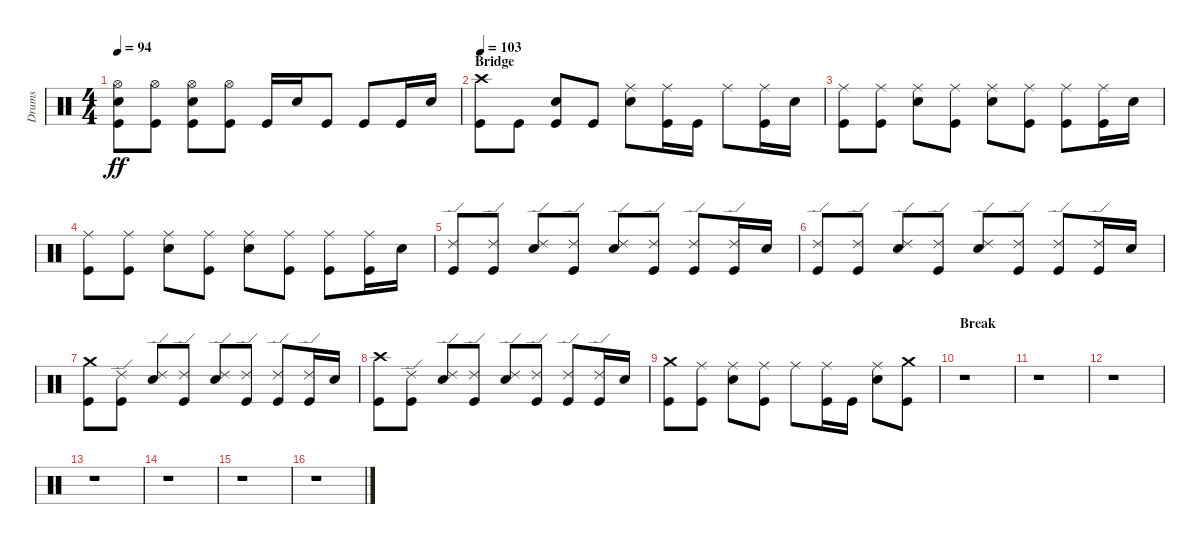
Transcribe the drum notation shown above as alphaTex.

\track ("Drums" "Drums") {instrument percussion}
\staff {score}
\articulation defaults
\ts (4 4)
\tempo 94
\clef neutral
\ks c
("Hi-Hat (open)" "Electric Snare (hit)" "Kick (hit)").8{dy ff} ("Hi-Hat (open)" "Kick (hit)").8 ("Hi-Hat (open)" "Electric Snare (hit)" "Kick (hit)").8 ("Hi-Hat (open)" "Kick (hit)").8 "Kick (hit)".16 "Electric Snare (hit)".16 "Kick (hit)".8 "Kick (hit)".8 "Kick (hit)".16 "Electric Snare (hit)".16 |
\section ("" "Bridge")
\tempo 103
("Crash high (hit)" "Kick (hit)").8 "Kick (hit)".8 ("Electric Snare (hit)" "Kick (hit)").8 "Kick (hit)".8 ("Ride (middle)" "Electric Snare (hit)").8 ("Ride (middle)" "Kick (hit)").16 "Kick (hit)".16 "Ride (middle)".8 ("Ride (middle)" "Kick (hit)").16 "Electric Snare (hit)".16 |
("Ride (middle)" "Kick (hit)").8 ("Ride (middle)" "Kick (hit)").8 ("Ride (middle)" "Electric Snare (hit)").8 ("Ride (middle)" "Kick (hit)").8 ("Ride (middle)" "Electric Snare (hit)").8 ("Ride (middle)" "Kick (hit)").8 ("Ride (middle)" "Kick (hit)").8 ("Ride (middle)" "Kick (hit)").16 "Electric Snare (hit)".16 |
("Ride (middle)" "Kick (hit)").8 ("Ride (middle)" "Kick (hit)").8 ("Ride (middle)" "Electric Snare (hit)").8 ("Ride (middle)" "Kick (hit)").8 ("Ride (middle)" "Electric Snare (hit)").8 ("Ride (middle)" "Kick (hit)").8 ("Ride (middle)" "Kick (hit)").8 ("Ride (middle)" "Kick (hit)").16 "Electric Snare (hit)".16 |
("Ride (edge) 2" "Kick (hit)").8 ("Ride (edge) 2" "Kick (hit)").8 ("Ride (edge) 2" "Electric Snare (hit)").8 ("Ride (edge) 2" "Kick (hit)").8 ("Ride (edge) 2" "Electric Snare (hit)").8 ("Ride (edge) 2" "Kick (hit)").8 ("Ride (edge) 2" "Kick (hit)").8 ("Ride (edge) 2" "Kick (hit)").16 "Electric Snare (hit)".16 |
("Ride (edge) 2" "Kick (hit)").8 ("Ride (edge) 2" "Kick (hit)").8 ("Ride (edge) 2" "Electric Snare (hit)").8 ("Ride (edge) 2" "Kick (hit)").8 ("Ride (edge) 2" "Electric Snare (hit)").8 ("Ride (edge) 2" "Kick (hit)").8 ("Ride (edge) 2" "Kick (hit)").8 ("Ride (edge) 2" "Kick (hit)").16 "Electric Snare (hit)".16 |
("Crash medium (hit)" "Kick (hit)").8 ("Ride (edge) 2" "Kick (hit)").8 ("Ride (edge) 2" "Electric Snare (hit)").8 ("Ride (edge) 2" "Kick (hit)").8 ("Ride (edge) 2" "Electric Snare (hit)").8 ("Ride (edge) 2" "Kick (hit)").8 ("Ride (edge) 2" "Kick (hit)").8 ("Ride (edge) 2" "Kick (hit)").16 "Electric Snare (hit)".16 |
("Crash high (hit)" "Kick (hit)").8 ("Ride (edge) 2" "Kick (hit)").8 ("Ride (edge) 2" "Electric Snare (hit)").8 ("Ride (edge) 2" "Kick (hit)").8 ("Ride (edge) 2" "Electric Snare (hit)").8 ("Ride (edge) 2" "Kick (hit)").8 ("Ride (edge) 2" "Kick (hit)").8 ("Ride (edge) 2" "Kick (hit)").16 "Electric Snare (hit)".16 |
("Crash medium (hit)" "Kick (hit)").8 ("Ride (middle)" "Kick (hit)").8 ("Ride (middle)" "Electric Snare (hit)").8 ("Ride (middle)" "Kick (hit)").8 "Ride (middle)".8 ("Ride (middle)" "Kick (hit)").16 "Kick (hit)".16 ("Ride (middle)" "Electric Snare (hit)").8 ("Crash medium (hit)" "Kick (hit)").8 |
\section ("" "Break")
r.1 |
r.1 |
r.1 |
r.1 |
r.1 |
r.1 |
r.1
